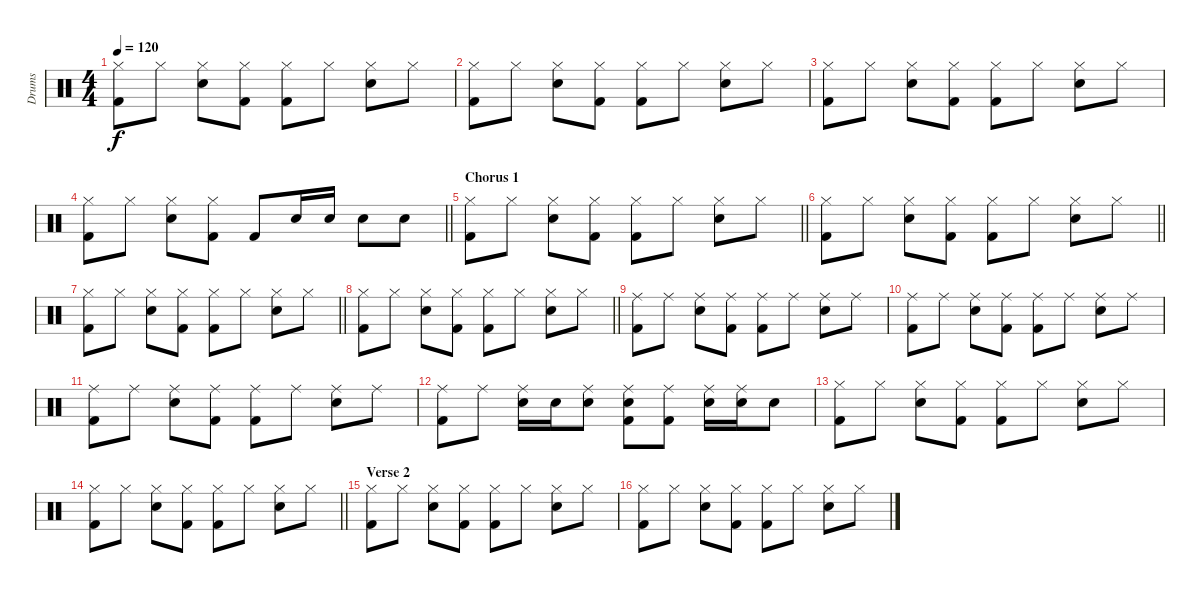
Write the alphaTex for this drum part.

\track ("Drums" "Drums") {instrument percussion}
\staff
\articulation defaults
\ts (4 4)
\tempo 120
\clef neutral
\ks c
("Hi-Hat (closed)" "Kick (hit) 2").8{dy f} "Hi-Hat (closed)".8 ("Hi-Hat (closed)" "Electric Snare (hit)").8 ("Hi-Hat (closed)" "Kick (hit) 2").8 ("Hi-Hat (closed)" "Kick (hit) 2").8 "Hi-Hat (closed)".8 ("Hi-Hat (closed)" "Electric Snare (hit)").8 "Hi-Hat (closed)".8 |
("Hi-Hat (closed)" "Kick (hit) 2").8 "Hi-Hat (closed)".8 ("Hi-Hat (closed)" "Electric Snare (hit)").8 ("Hi-Hat (closed)" "Kick (hit) 2").8 ("Hi-Hat (closed)" "Kick (hit) 2").8 "Hi-Hat (closed)".8 ("Hi-Hat (closed)" "Electric Snare (hit)").8 "Hi-Hat (closed)".8 |
("Hi-Hat (closed)" "Kick (hit) 2").8 "Hi-Hat (closed)".8 ("Hi-Hat (closed)" "Electric Snare (hit)").8 ("Hi-Hat (closed)" "Kick (hit) 2").8 ("Hi-Hat (closed)" "Kick (hit) 2").8 "Hi-Hat (closed)".8 ("Hi-Hat (closed)" "Electric Snare (hit)").8 "Hi-Hat (closed)".8 |
\barLineRight lightlight
("Hi-Hat (closed)" "Kick (hit) 2").8 "Hi-Hat (closed)".8 ("Hi-Hat (closed)" "Electric Snare (hit)").8 ("Hi-Hat (closed)" "Kick (hit) 2").8 "Kick (hit) 2".8 "Electric Snare (hit)".16 "Electric Snare (hit)".16 "Electric Snare (hit)".8 "Electric Snare (hit)".8 |
\section ("" "Chorus 1")
\barLineRight lightlight
("Hi-Hat (closed)" "Kick (hit) 2").8 "Hi-Hat (closed)".8 ("Hi-Hat (closed)" "Electric Snare (hit)").8 ("Hi-Hat (closed)" "Kick (hit) 2").8 ("Hi-Hat (closed)" "Kick (hit) 2").8 "Hi-Hat (closed)".8 ("Hi-Hat (closed)" "Electric Snare (hit)").8 "Hi-Hat (closed)".8 |
\barLineRight lightlight
("Hi-Hat (closed)" "Kick (hit) 2").8 "Hi-Hat (closed)".8 ("Hi-Hat (closed)" "Electric Snare (hit)").8 ("Hi-Hat (closed)" "Kick (hit) 2").8 ("Hi-Hat (closed)" "Kick (hit) 2").8 "Hi-Hat (closed)".8 ("Hi-Hat (closed)" "Electric Snare (hit)").8 "Hi-Hat (closed)".8 |
\barLineRight lightlight
("Hi-Hat (closed)" "Kick (hit) 2").8 "Hi-Hat (closed)".8 ("Hi-Hat (closed)" "Electric Snare (hit)").8 ("Hi-Hat (closed)" "Kick (hit) 2").8 ("Hi-Hat (closed)" "Kick (hit) 2").8 "Hi-Hat (closed)".8 ("Hi-Hat (closed)" "Electric Snare (hit)").8 "Hi-Hat (closed)".8 |
\barLineRight lightlight
("Hi-Hat (closed)" "Kick (hit) 2").8 "Hi-Hat (closed)".8 ("Hi-Hat (closed)" "Electric Snare (hit)").8 ("Hi-Hat (closed)" "Kick (hit) 2").8 ("Hi-Hat (closed)" "Kick (hit) 2").8 "Hi-Hat (closed)".8 ("Hi-Hat (closed)" "Electric Snare (hit)").8 "Hi-Hat (closed)".8 |
("Ride (middle)" "Kick (hit) 2").8 "Ride (middle)".8 ("Ride (middle)" "Electric Snare (hit)").8 ("Ride (middle)" "Kick (hit) 2").8 ("Ride (middle)" "Kick (hit) 2").8 "Ride (middle)".8 ("Ride (middle)" "Electric Snare (hit)").8 "Ride (middle)".8 |
("Ride (middle)" "Kick (hit) 2").8 "Ride (middle)".8 ("Ride (middle)" "Electric Snare (hit)").8 ("Ride (middle)" "Kick (hit) 2").8 ("Ride (middle)" "Kick (hit) 2").8 "Ride (middle)".8 ("Ride (middle)" "Electric Snare (hit)").8 "Ride (middle)".8 |
("Ride (middle)" "Kick (hit) 2").8 "Ride (middle)".8 ("Ride (middle)" "Electric Snare (hit)").8 ("Ride (middle)" "Kick (hit) 2").8 ("Ride (middle)" "Kick (hit) 2").8 "Ride (middle)".8 ("Ride (middle)" "Electric Snare (hit)").8 "Ride (middle)".8 |
("Ride (middle)" "Kick (hit) 2").8 "Ride (middle)".8 ("Ride (middle)" "Electric Snare (hit)").16 "Electric Snare (hit)".16 ("Ride (middle)" "Electric Snare (hit)").8 ("Ride (middle)" "Electric Snare (hit)" "Kick (hit) 2").8 ("Ride (middle)" "Kick (hit) 2").8 ("Ride (middle)" "Electric Snare (hit)").16 ("Ride (middle)" "Electric Snare (hit)").16 "Electric Snare (hit)".8 |
("Hi-Hat (closed)" "Kick (hit) 2").8 "Hi-Hat (closed)".8 ("Hi-Hat (closed)" "Electric Snare (hit)").8 ("Hi-Hat (closed)" "Kick (hit) 2").8 ("Hi-Hat (closed)" "Kick (hit) 2").8 "Hi-Hat (closed)".8 ("Hi-Hat (closed)" "Electric Snare (hit)").8 "Hi-Hat (closed)".8 |
\barLineRight lightlight
("Hi-Hat (closed)" "Kick (hit) 2").8 "Hi-Hat (closed)".8 ("Hi-Hat (closed)" "Electric Snare (hit)").8 ("Hi-Hat (closed)" "Kick (hit) 2").8 ("Hi-Hat (closed)" "Kick (hit) 2").8 "Hi-Hat (closed)".8 ("Hi-Hat (closed)" "Electric Snare (hit)").8 "Hi-Hat (closed)".8 |
\section ("" "Verse 2")
("Hi-Hat (closed)" "Kick (hit) 2").8 "Hi-Hat (closed)".8 ("Hi-Hat (closed)" "Electric Snare (hit)").8 ("Hi-Hat (closed)" "Kick (hit) 2").8 ("Hi-Hat (closed)" "Kick (hit) 2").8 "Hi-Hat (closed)".8 ("Hi-Hat (closed)" "Electric Snare (hit)").8 "Hi-Hat (closed)".8 |
("Hi-Hat (closed)" "Kick (hit) 2").8 "Hi-Hat (closed)".8 ("Hi-Hat (closed)" "Electric Snare (hit)").8 ("Hi-Hat (closed)" "Kick (hit) 2").8 ("Hi-Hat (closed)" "Kick (hit) 2").8 "Hi-Hat (closed)".8 ("Hi-Hat (closed)" "Electric Snare (hit)").8 "Hi-Hat (closed)".8
